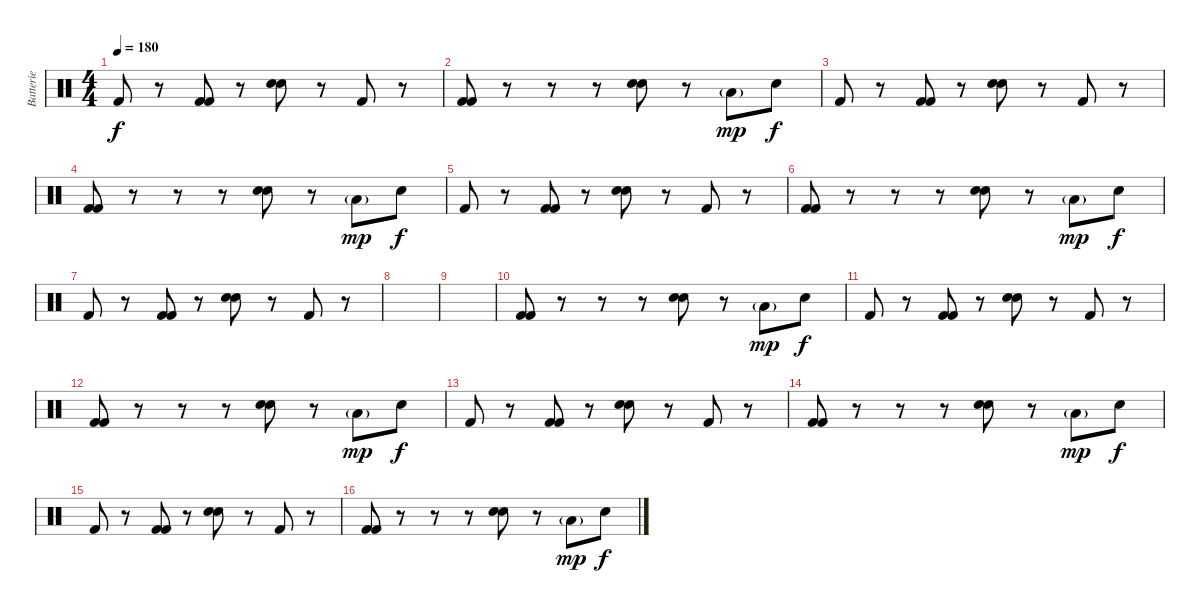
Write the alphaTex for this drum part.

\track ("Batterie" "Batterie") {instrument percussion}
\staff {score}
\articulation defaults
\ts (4 4)
\tempo 180
\clef neutral
\ks c "Kick (hit) 2".8{dy f}
r.8 ("Kick (hit) 2" "Kick (hit) 2").8 r.8 ("Electric Snare (hit)" "Snare (hit) 2").8 r.8 "Kick (hit) 2".8 r.8 |
("Kick (hit) 2" "Kick (hit) 2").8 r.8 r.8 r.8 ("Electric Snare (hit)" "Snare (hit) 2").8 r.8 "Low Tom (hit)"{g}.8{dy mp} "Electric Snare (hit)".8{dy f} |
"Kick (hit) 2".8 r.8 ("Kick (hit) 2" "Kick (hit) 2").8 r.8 ("Electric Snare (hit)" "Snare (hit) 2").8 r.8 "Kick (hit) 2".8 r.8 |
("Kick (hit) 2" "Kick (hit) 2").8 r.8 r.8 r.8 ("Electric Snare (hit)" "Snare (hit) 2").8 r.8 "Low Tom (hit)"{g}.8{dy mp} "Electric Snare (hit)".8{dy f} |
"Kick (hit) 2".8 r.8 ("Kick (hit) 2" "Kick (hit) 2").8 r.8 ("Electric Snare (hit)" "Snare (hit) 2").8 r.8 "Kick (hit) 2".8 r.8 |
("Kick (hit) 2" "Kick (hit) 2").8 r.8 r.8 r.8 ("Electric Snare (hit)" "Snare (hit) 2").8 r.8 "Low Tom (hit)"{g}.8{dy mp} "Electric Snare (hit)".8{dy f} |
"Kick (hit) 2".8 r.8 ("Kick (hit) 2" "Kick (hit) 2").8 r.8 ("Electric Snare (hit)" "Snare (hit) 2").8 r.8 "Kick (hit) 2".8 r.8 |
|
|
("Kick (hit) 2" "Kick (hit) 2").8 r.8 r.8 r.8 ("Electric Snare (hit)" "Snare (hit) 2").8 r.8 "Low Tom (hit)"{g}.8{dy mp} "Electric Snare (hit)".8{dy f} |
"Kick (hit) 2".8 r.8 ("Kick (hit) 2" "Kick (hit) 2").8 r.8 ("Electric Snare (hit)" "Snare (hit) 2").8 r.8 "Kick (hit) 2".8 r.8 |
("Kick (hit) 2" "Kick (hit) 2").8 r.8 r.8 r.8 ("Electric Snare (hit)" "Snare (hit) 2").8 r.8 "Low Tom (hit)"{g}.8{dy mp} "Electric Snare (hit)".8{dy f} |
"Kick (hit) 2".8 r.8 ("Kick (hit) 2" "Kick (hit) 2").8 r.8 ("Electric Snare (hit)" "Snare (hit) 2").8 r.8 "Kick (hit) 2".8 r.8 |
("Kick (hit) 2" "Kick (hit) 2").8 r.8 r.8 r.8 ("Electric Snare (hit)" "Snare (hit) 2").8 r.8 "Low Tom (hit)"{g}.8{dy mp} "Electric Snare (hit)".8{dy f} |
"Kick (hit) 2".8 r.8 ("Kick (hit) 2" "Kick (hit) 2").8 r.8 ("Electric Snare (hit)" "Snare (hit) 2").8 r.8 "Kick (hit) 2".8 r.8 |
("Kick (hit) 2" "Kick (hit) 2").8 r.8 r.8 r.8 ("Electric Snare (hit)" "Snare (hit) 2").8 r.8 "Low Tom (hit)"{g}.8{dy mp} "Electric Snare (hit)".8{dy f}
